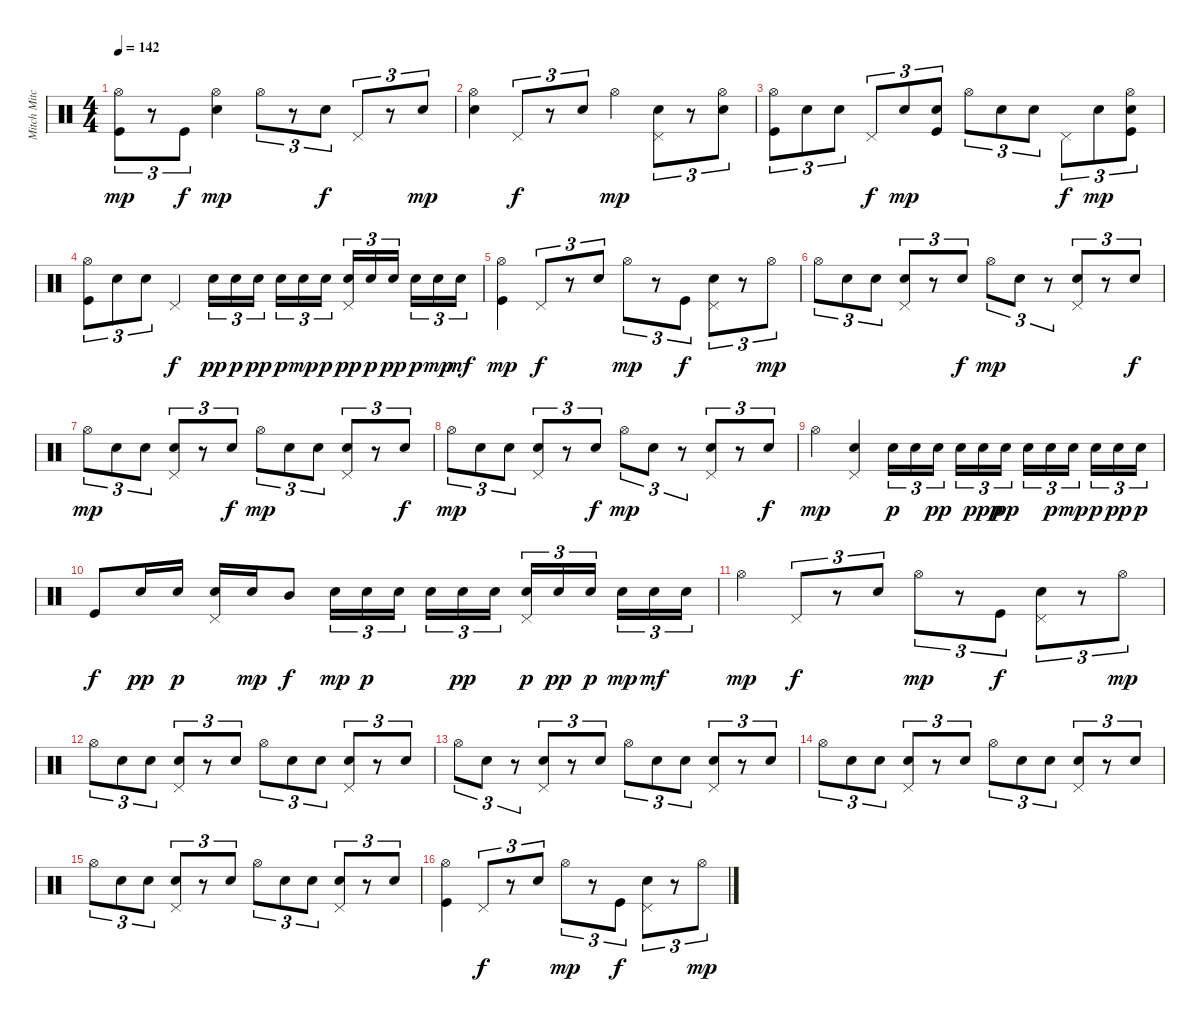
\track ("Mitch Mitchell" "Mitch Mitc") {instrument percussion}
\staff {score}
\articulation defaults
\ts (4 4)
\tempo 142
\clef neutral
\ks c
("Hi-Hat (open)" "Kick (hit)").8{tu (3 2) dy mp} r.8{tu (3 2)} "Kick (hit)".8{tu (3 2) dy f} ("Hi-Hat (open)" "Electric Snare (hit)").4{dy mp} "Hi-Hat (open)".8{tu (3 2)} r.8{tu (3 2)} "Electric Snare (hit)".8{tu (3 2) dy f} "Pedal Hi-Hat (hit)".8{tu (3 2)} r.8{tu (3 2)} "Electric Snare (hit)".8{tu (3 2) dy mp} |
("Hi-Hat (open)" "Electric Snare (hit)").4 "Pedal Hi-Hat (hit)".8{tu (3 2) dy f} r.8{tu (3 2)} "Electric Snare (hit)".8{tu (3 2)} "Hi-Hat (open)".4{dy mp} ("Pedal Hi-Hat (hit)" "Electric Snare (hit)").8{tu (3 2)} r.8{tu (3 2)} ("Hi-Hat (open)" "Electric Snare (hit)").8{tu (3 2)} |
("Hi-Hat (open)" "Kick (hit)").8{tu (3 2)} "Electric Snare (hit)".8{tu (3 2)} "Electric Snare (hit)".8{tu (3 2)} "Pedal Hi-Hat (hit)".8{tu (3 2) dy f} "Electric Snare (hit)".8{tu (3 2) dy mp} ("Electric Snare (hit)" "Kick (hit)").8{tu (3 2)} "Hi-Hat (open)".8{tu (3 2)} "Electric Snare (hit)".8{tu (3 2)} "Electric Snare (hit)".8{tu (3 2)} "Pedal Hi-Hat (hit)".8{tu (3 2) dy f} "Electric Snare (hit)".8{tu (3 2) dy mp} ("Hi-Hat (open)" "Electric Snare (hit)" "Kick (hit)").8{tu (3 2)} |
("Hi-Hat (open)" "Kick (hit)").8{tu (3 2)} "Electric Snare (hit)".8{tu (3 2)} "Electric Snare (hit)".8{tu (3 2)} "Pedal Hi-Hat (hit)".4{dy f} "Electric Snare (hit)".16{tu (3 2) dy pp} "Electric Snare (hit)".16{tu (3 2) dy p} "Electric Snare (hit)".16{tu (3 2) dy pp} "Electric Snare (hit)".16{tu (3 2) dy p} "Electric Snare (hit)".16{tu (3 2) dy mp} "Electric Snare (hit)".16{tu (3 2) dy p} ("Pedal Hi-Hat (hit)" "Electric Snare (hit)").16{tu (3 2) dy pp} "Electric Snare (hit)".16{tu (3 2) dy p} "Electric Snare (hit)".16{tu (3 2) dy pp} "Electric Snare (hit)".16{tu (3 2) dy p} "Electric Snare (hit)".16{tu (3 2) dy mp} "Electric Snare (hit)".16{tu (3 2) dy mf} |
("Hi-Hat (open)" "Kick (hit)").4{dy mp} "Pedal Hi-Hat (hit)".8{tu (3 2) dy f} r.8{tu (3 2)} "Electric Snare (hit)".8{tu (3 2)} "Hi-Hat (open)".8{tu (3 2) dy mp} r.8{tu (3 2)} "Kick (hit)".8{tu (3 2) dy f} ("Pedal Hi-Hat (hit)" "Electric Snare (hit)").8{tu (3 2)} r.8{tu (3 2)} "Hi-Hat (open)".8{tu (3 2) dy mp} |
"Hi-Hat (open)".8{tu (3 2)} "Electric Snare (hit)".8{tu (3 2)} "Electric Snare (hit)".8{tu (3 2)} ("Pedal Hi-Hat (hit)" "Electric Snare (hit)").8{tu (3 2)} r.8{tu (3 2)} "Electric Snare (hit)".8{tu (3 2) dy f} "Hi-Hat (open)".8{tu (3 2) dy mp} "Electric Snare (hit)".8{tu (3 2)} r.8{tu (3 2)} ("Pedal Hi-Hat (hit)" "Electric Snare (hit)").8{tu (3 2)} r.8{tu (3 2)} "Electric Snare (hit)".8{tu (3 2) dy f} |
"Hi-Hat (open)".8{tu (3 2) dy mp} "Electric Snare (hit)".8{tu (3 2)} "Electric Snare (hit)".8{tu (3 2)} ("Pedal Hi-Hat (hit)" "Electric Snare (hit)").8{tu (3 2)} r.8{tu (3 2)} "Electric Snare (hit)".8{tu (3 2) dy f} "Hi-Hat (open)".8{tu (3 2) dy mp} "Electric Snare (hit)".8{tu (3 2)} "Electric Snare (hit)".8{tu (3 2)} ("Pedal Hi-Hat (hit)" "Electric Snare (hit)").8{tu (3 2)} r.8{tu (3 2)} "Electric Snare (hit)".8{tu (3 2) dy f} |
"Hi-Hat (open)".8{tu (3 2) dy mp} "Electric Snare (hit)".8{tu (3 2)} "Electric Snare (hit)".8{tu (3 2)} ("Pedal Hi-Hat (hit)" "Electric Snare (hit)").8{tu (3 2)} r.8{tu (3 2)} "Electric Snare (hit)".8{tu (3 2) dy f} "Hi-Hat (open)".8{tu (3 2) dy mp} "Electric Snare (hit)".8{tu (3 2)} r.8{tu (3 2)} ("Pedal Hi-Hat (hit)" "Electric Snare (hit)").8{tu (3 2)} r.8{tu (3 2)} "Electric Snare (hit)".8{tu (3 2) dy f} |
"Hi-Hat (open)".4{dy mp} ("Pedal Hi-Hat (hit)" "Electric Snare (hit)").4 "Electric Snare (hit)".16{tu (3 2) dy p} "Electric Snare (hit)".16{tu (3 2)} "Electric Snare (hit)".16{tu (3 2) dy pp} "Electric Snare (hit)".16{tu (3 2)} "Electric Snare (hit)".16{tu (3 2) dy ppp} "Electric Snare (hit)".16{tu (3 2) dy pp} "Electric Snare (hit)".16{tu (3 2)} "Electric Snare (hit)".16{tu (3 2) dy p} "Electric Snare (hit)".16{tu (3 2) dy mp} "Electric Snare (hit)".16{tu (3 2) dy p} "Electric Snare (hit)".16{tu (3 2) dy pp} "Electric Snare (hit)".16{tu (3 2) dy p} |
"Kick (hit)".8{dy f} "Electric Snare (hit)".16{dy pp} "Electric Snare (hit)".16{dy p} ("Pedal Hi-Hat (hit)" "Electric Snare (hit)").16 "Electric Snare (hit)".16{dy mp} "Mid Tom (hit)".8{dy f} "Electric Snare (hit)".16{tu (3 2) dy mp} "Electric Snare (hit)".16{tu (3 2) dy p} "Electric Snare (hit)".16{tu (3 2)} "Electric Snare (hit)".16{tu (3 2)} "Electric Snare (hit)".16{tu (3 2) dy pp} "Electric Snare (hit)".16{tu (3 2)} ("Pedal Hi-Hat (hit)" "Electric Snare (hit)").16{tu (3 2) dy p} "Electric Snare (hit)".16{tu (3 2) dy pp} "Electric Snare (hit)".16{tu (3 2) dy p} "Electric Snare (hit)".16{tu (3 2) dy mp} "Electric Snare (hit)".16{tu (3 2) dy mf} "Electric Snare (hit)".16{tu (3 2)} |
"Hi-Hat (open)".4{dy mp} "Pedal Hi-Hat (hit)".8{tu (3 2) dy f} r.8{tu (3 2)} "Electric Snare (hit)".8{tu (3 2)} "Hi-Hat (open)".8{tu (3 2) dy mp} r.8{tu (3 2)} "Kick (hit)".8{tu (3 2) dy f} ("Pedal Hi-Hat (hit)" "Electric Snare (hit)").8{tu (3 2)} r.8{tu (3 2)} "Hi-Hat (open)".8{tu (3 2) dy mp} |
"Hi-Hat (open)".8{tu (3 2)} "Electric Snare (hit)".8{tu (3 2)} "Electric Snare (hit)".8{tu (3 2)} ("Pedal Hi-Hat (hit)" "Electric Snare (hit)").8{tu (3 2)} r.8{tu (3 2)} "Electric Snare (hit)".8{tu (3 2)} "Hi-Hat (open)".8{tu (3 2)} "Electric Snare (hit)".8{tu (3 2)} "Electric Snare (hit)".8{tu (3 2)} ("Pedal Hi-Hat (hit)" "Electric Snare (hit)").8{tu (3 2)} r.8{tu (3 2)} "Electric Snare (hit)".8{tu (3 2)} |
"Hi-Hat (open)".8{tu (3 2)} "Electric Snare (hit)".8{tu (3 2)} r.8{tu (3 2)} ("Pedal Hi-Hat (hit)" "Electric Snare (hit)").8{tu (3 2)} r.8{tu (3 2)} "Electric Snare (hit)".8{tu (3 2)} "Hi-Hat (open)".8{tu (3 2)} "Electric Snare (hit)".8{tu (3 2)} "Electric Snare (hit)".8{tu (3 2)} ("Pedal Hi-Hat (hit)" "Electric Snare (hit)").8{tu (3 2)} r.8{tu (3 2)} "Electric Snare (hit)".8{tu (3 2)} |
"Hi-Hat (open)".8{tu (3 2)} "Electric Snare (hit)".8{tu (3 2)} "Electric Snare (hit)".8{tu (3 2)} ("Pedal Hi-Hat (hit)" "Electric Snare (hit)").8{tu (3 2)} r.8{tu (3 2)} "Electric Snare (hit)".8{tu (3 2)} "Hi-Hat (open)".8{tu (3 2)} "Electric Snare (hit)".8{tu (3 2)} "Electric Snare (hit)".8{tu (3 2)} ("Pedal Hi-Hat (hit)" "Electric Snare (hit)").8{tu (3 2)} r.8{tu (3 2)} "Electric Snare (hit)".8{tu (3 2)} |
"Hi-Hat (open)".8{tu (3 2)} "Electric Snare (hit)".8{tu (3 2)} "Electric Snare (hit)".8{tu (3 2)} ("Pedal Hi-Hat (hit)" "Electric Snare (hit)").8{tu (3 2)} r.8{tu (3 2)} "Electric Snare (hit)".8{tu (3 2)} "Hi-Hat (open)".8{tu (3 2)} "Electric Snare (hit)".8{tu (3 2)} "Electric Snare (hit)".8{tu (3 2)} ("Pedal Hi-Hat (hit)" "Electric Snare (hit)").8{tu (3 2)} r.8{tu (3 2)} "Electric Snare (hit)".8{tu (3 2)} |
("Hi-Hat (open)" "Kick (hit)").4 "Pedal Hi-Hat (hit)".8{tu (3 2) dy f} r.8{tu (3 2)} "Electric Snare (hit)".8{tu (3 2)} "Hi-Hat (open)".8{tu (3 2) dy mp} r.8{tu (3 2)} "Kick (hit)".8{tu (3 2) dy f} ("Pedal Hi-Hat (hit)" "Electric Snare (hit)").8{tu (3 2)} r.8{tu (3 2)} "Hi-Hat (open)".8{tu (3 2) dy mp}
